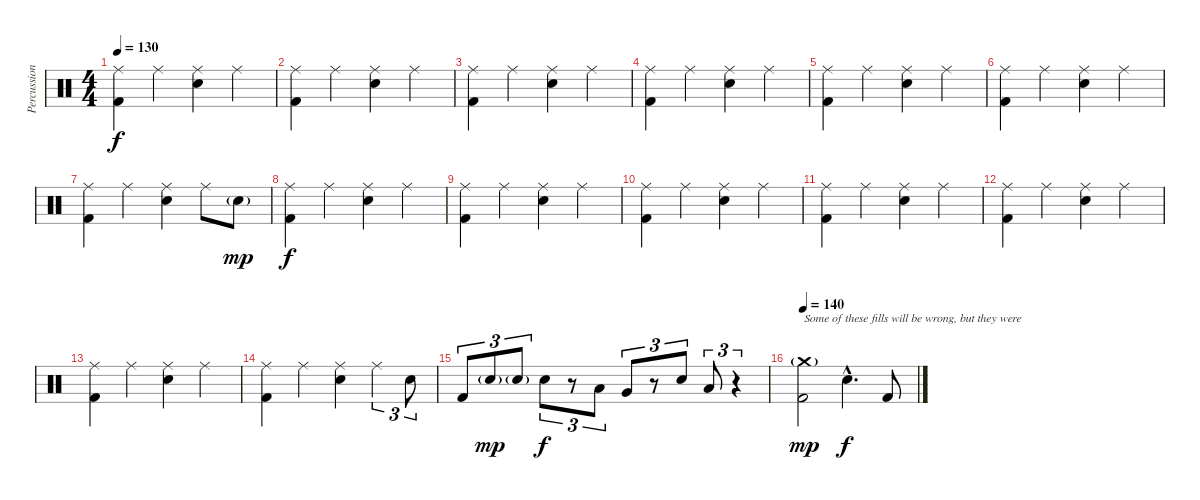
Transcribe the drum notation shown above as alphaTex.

\track ("Percussion" "Percussion") {instrument percussion}
\staff {score}
\articulation defaults
\ts (4 4)
\tempo 130
\clef neutral
\ks c
("Ride (middle)" "Kick (hit) 2").4{dy f} "Ride (middle)".4 ("Ride (middle)" "Snare (hit) 2").4 "Ride (middle)".4 |
("Ride (middle)" "Kick (hit) 2").4 "Ride (middle)".4 ("Ride (middle)" "Snare (hit) 2").4 "Ride (middle)".4 |
("Ride (middle)" "Kick (hit) 2").4 "Ride (middle)".4 ("Ride (middle)" "Snare (hit) 2").4 "Ride (middle)".4 |
("Ride (middle)" "Kick (hit) 2").4 "Ride (middle)".4 ("Ride (middle)" "Snare (hit) 2").4 "Ride (middle)".4 |
("Ride (middle)" "Kick (hit) 2").4 "Ride (middle)".4 ("Ride (middle)" "Snare (hit) 2").4 "Ride (middle)".4 |
("Ride (middle)" "Kick (hit) 2").4 "Ride (middle)".4 ("Ride (middle)" "Snare (hit) 2").4 "Ride (middle)".4 |
("Ride (middle)" "Kick (hit) 2").4 "Ride (middle)".4 ("Ride (middle)" "Snare (hit) 2").4 "Ride (middle)".8 "Snare (hit) 2"{g}.8{dy mp} |
("Ride (middle)" "Kick (hit) 2").4{dy f} "Ride (middle)".4 ("Ride (middle)" "Snare (hit) 2").4 "Ride (middle)".4 |
("Ride (middle)" "Kick (hit) 2").4 "Ride (middle)".4 ("Ride (middle)" "Snare (hit) 2").4 "Ride (middle)".4 |
("Ride (middle)" "Kick (hit) 2").4 "Ride (middle)".4 ("Ride (middle)" "Snare (hit) 2").4 "Ride (middle)".4 |
("Ride (middle)" "Kick (hit) 2").4 "Ride (middle)".4 ("Ride (middle)" "Snare (hit) 2").4 "Ride (middle)".4 |
("Ride (middle)" "Kick (hit) 2").4 "Ride (middle)".4 ("Ride (middle)" "Snare (hit) 2").4 "Ride (middle)".4 |
("Ride (middle)" "Kick (hit) 2").4 "Ride (middle)".4 ("Ride (middle)" "Snare (hit) 2").4 "Ride (middle)".4 |
("Ride (middle)" "Kick (hit) 2").4 "Ride (middle)".4 ("Ride (middle)" "Snare (hit) 2").4 "Ride (middle)".4{tu (3 2)} "Snare (hit) 2".8{tu (3 2)} |
"Kick (hit) 2".8{tu (3 2)} "Snare (hit) 2"{g}.8{tu (3 2) dy mp} "Snare (hit) 2"{g}.8{tu (3 2)} "Snare (hit) 2".8{tu (3 2) dy f} r.8{tu (3 2)} "Low Tom (hit)".8{tu (3 2)} "Very Low Tom (hit)".8{tu (3 2)} r.8{tu (3 2)} "Snare (hit) 2".8{tu (3 2)} "Low Tom (hit)".8{tu (3 2)} r.4{tu (3 2)} |
\tempo 140
("Crash medium (hit)"{g} "Kick (hit) 2").2{txt "Some of these fills will be wrong, but they were " dy mp} "Snare (hit) 2"{hac}.4{d dy f} "Kick (hit) 2".8
